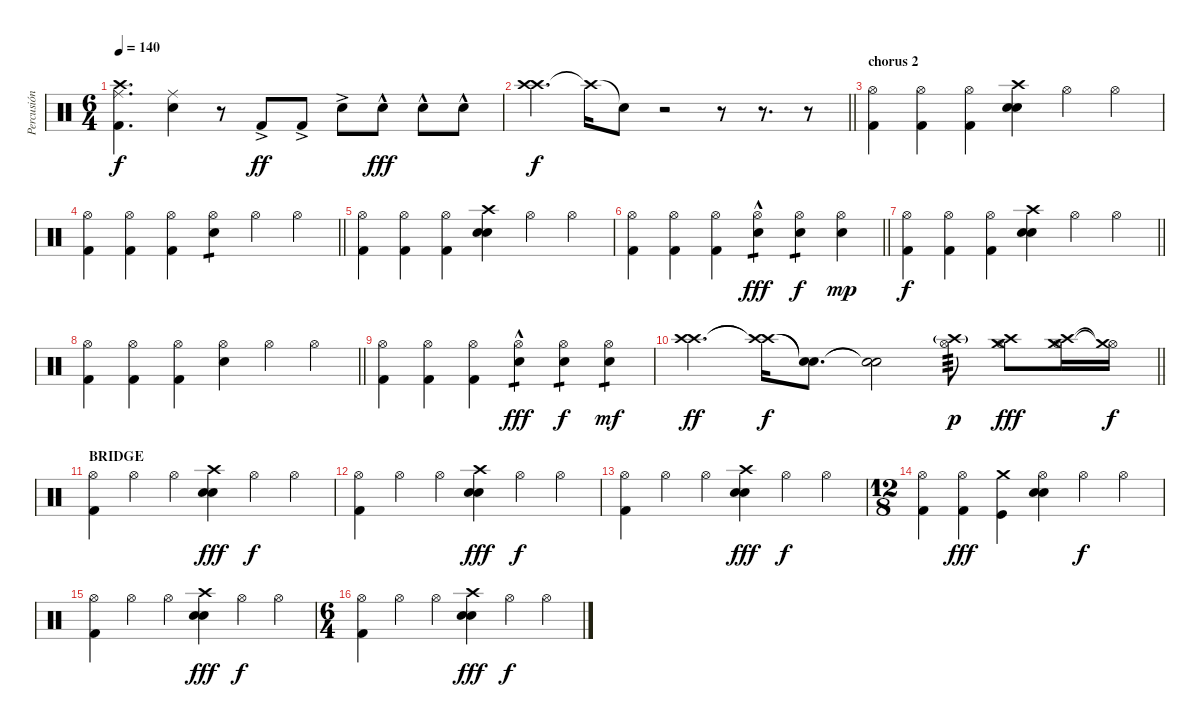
\track ("Percusión" "Percusión") {instrument percussion}
\staff {score}
\articulation defaults
\ts (6 4)
\tempo 140
\clef neutral
\ks c
("Crash high (hit)" "Ride (middle)" "Kick (hit) 2").4{d dy f} ("Ride (middle)" "Electric Snare (hit)").4 r.8 "Kick (hit) 2"{ac}.8{dy ff volume 16} "Kick (hit) 2"{ac}.8 "Snare (hit) 2"{ac}.8 "Snare (hit) 2"{hac}.8{dy fff} "Snare (hit) 2"{hac}.8 "Snare (hit) 2"{hac}.8 |
\barLineRight lightlight
("Crash high (hit)" "Crash high (hit)").4{d dy f} "Crash high (hit)"{t}.16 "Snare (hit)"{t}.8 r.2 r.8 r.8{d} r.8 |
\section ("" "chorus 2")
("Hi-Hat (open)" "Kick (hit) 2").4 ("Hi-Hat (open)" "Kick (hit) 2").4 ("Hi-Hat (open)" "Kick (hit) 2").4 ("Crash high (hit)" "Electric Snare (hit)" "Electric Snare (hit)").4 "Hi-Hat (open)".4 "Hi-Hat (open)".4 |
\barLineRight lightlight
("Hi-Hat (open)" "Kick (hit) 2").4 ("Hi-Hat (open)" "Kick (hit) 2").4 ("Hi-Hat (open)" "Kick (hit) 2").4 ("Hi-Hat (open)" "Snare (hit) 2").4{tp 1} "Hi-Hat (open)".4 "Hi-Hat (open)".4 |
("Hi-Hat (open)" "Kick (hit) 2").4 ("Hi-Hat (open)" "Kick (hit) 2").4 ("Hi-Hat (open)" "Kick (hit) 2").4 ("Crash high (hit)" "Electric Snare (hit)" "Electric Snare (hit)").4 "Hi-Hat (open)".4 "Hi-Hat (open)".4 |
\barLineRight lightlight
("Hi-Hat (open)" "Kick (hit) 2").4 ("Hi-Hat (open)" "Kick (hit) 2").4 ("Hi-Hat (open)" "Kick (hit) 2").4 ("Hi-Hat (open)" "Electric Snare (hit)"{hac}).4{tp 1 dy fff} ("Hi-Hat (open)" "Snare (hit) 2").4{tp 1 dy f} ("Hi-Hat (open)" "Snare (hit) 2").4{dy mp} |
\barLineRight lightlight
("Hi-Hat (open)" "Kick (hit) 2").4{dy f} ("Hi-Hat (open)" "Kick (hit) 2").4 ("Hi-Hat (open)" "Kick (hit) 2").4 ("Crash high (hit)" "Electric Snare (hit)" "Electric Snare (hit)").4 "Hi-Hat (open)".4 "Hi-Hat (open)".4 |
\barLineRight lightlight
("Hi-Hat (open)" "Kick (hit) 2").4 ("Hi-Hat (open)" "Kick (hit) 2").4 ("Hi-Hat (open)" "Kick (hit) 2").4 ("Hi-Hat (open)" "Snare (hit) 2").4 "Hi-Hat (open)".4 "Hi-Hat (open)".4 |
("Hi-Hat (open)" "Kick (hit) 2").4 ("Hi-Hat (open)" "Kick (hit) 2").4 ("Hi-Hat (open)" "Kick (hit) 2").4 ("Hi-Hat (open)" "Electric Snare (hit)"{hac}).4{tp 1 dy fff} ("Hi-Hat (open)" "Snare (hit) 2").4{tp 1 dy f} ("Hi-Hat (open)" "Snare (hit) 2").4{tp 1 dy mf} |
\barLineRight lightlight
("Crash high (hit)" "Crash high (hit)").4{d dy ff} ("Crash high (hit)"{t} "Crash high (hit)"{t}).16{dy f} ("Snare (hit)"{t} "Snare (hit)"{t}).8{d} ("Snare (hit)"{t} "Snare (hit)"{t}).2 ("Hi-Hat (open)" "Crash high (hit)"{g}).8{tp 3 dy p} ("Hi-Hat (open)" "Crash high (hit)" "Crash medium (hit)").8{dy fff} ("Hi-Hat (open)" "Crash high (hit)" "Crash medium (hit)").16 ("Hi-Hat (open)"{t} "Crash medium (hit)"{t}).16{dy f} |
\section ("" "BRIDGE")
("Hi-Hat (open)" "Kick (hit) 2").4 "Hi-Hat (open)".4 "Hi-Hat (open)".4 ("Crash high (hit)" "Electric Snare (hit)" "Electric Snare (hit)").4{dy fff} "Hi-Hat (open)".4{dy f} "Hi-Hat (open)".4 |
("Hi-Hat (open)" "Kick (hit) 2").4 "Hi-Hat (open)".4 "Hi-Hat (open)".4 ("Crash high (hit)" "Electric Snare (hit)" "Electric Snare (hit)").4{dy fff} "Hi-Hat (open)".4{dy f} "Hi-Hat (open)".4 |
("Hi-Hat (open)" "Kick (hit) 2").4 "Hi-Hat (open)".4 "Hi-Hat (open)".4 ("Crash high (hit)" "Electric Snare (hit)" "Electric Snare (hit)").4{dy fff} "Hi-Hat (open)".4{dy f} "Hi-Hat (open)".4 |
\ts (12 8)
("Hi-Hat (open)" "Kick (hit) 2").4 ("Hi-Hat (open)" "Kick (hit) 2").4{dy fff} ("Crash medium (hit)" "Kick (hit)").4 ("Hi-Hat (open)" "Electric Snare (hit)" "Electric Snare (hit)").4 "Hi-Hat (open)".4{dy f} "Hi-Hat (open)".4 |
("Hi-Hat (open)" "Kick (hit) 2").4 "Hi-Hat (open)".4 "Hi-Hat (open)".4 ("Crash high (hit)" "Electric Snare (hit)" "Electric Snare (hit)").4{dy fff} "Hi-Hat (open)".4{dy f} "Hi-Hat (open)".4 |
\ts (6 4)
("Hi-Hat (open)" "Kick (hit) 2").4 "Hi-Hat (open)".4 "Hi-Hat (open)".4 ("Crash high (hit)" "Electric Snare (hit)" "Electric Snare (hit)").4{dy fff} "Hi-Hat (open)".4{dy f} "Hi-Hat (open)".4
